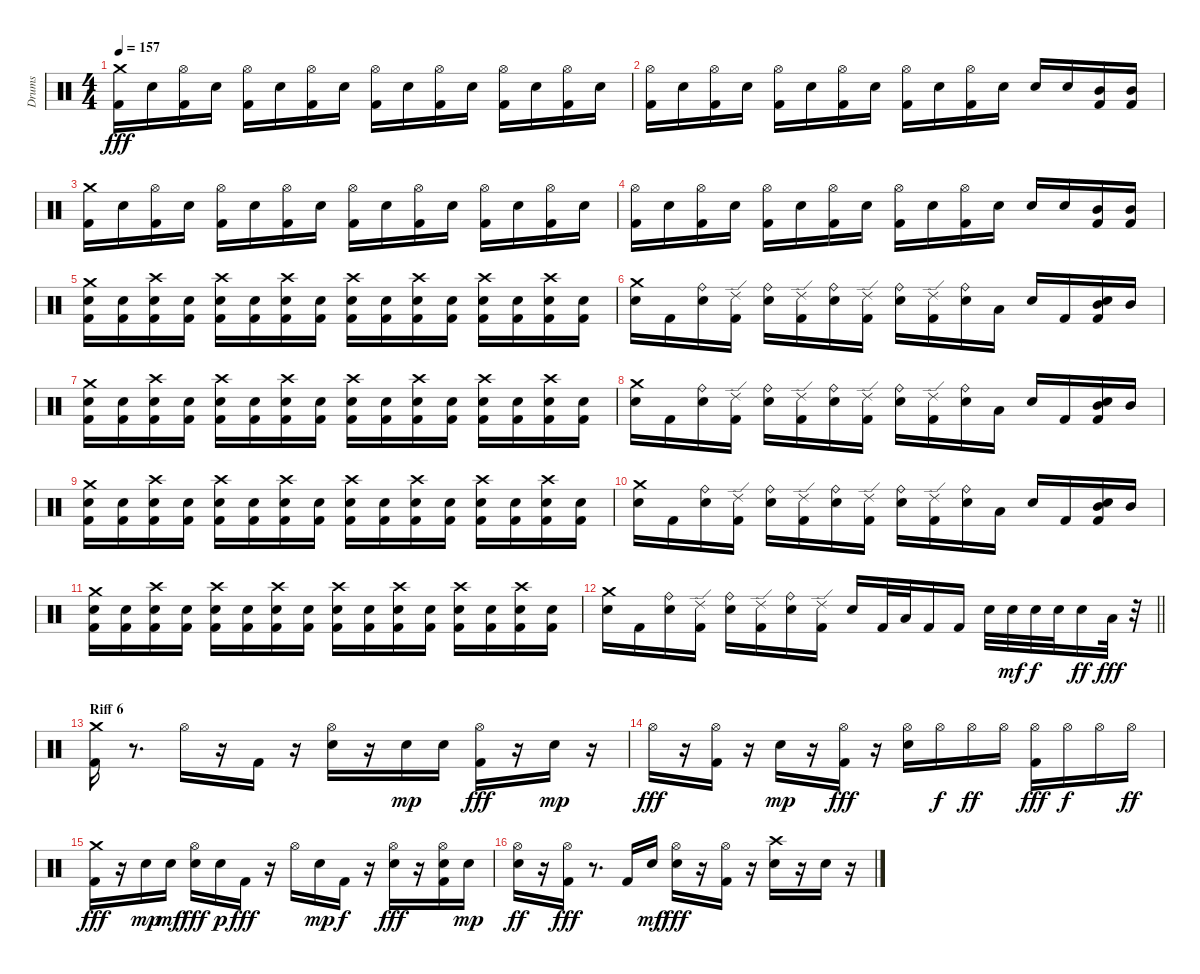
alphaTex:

\track ("Drums" "Drums") {instrument percussion}
\staff {score}
\articulation defaults
\ts (4 4)
\tempo 157
\clef neutral
\ks c
("Kick (hit) 2" "Crash medium (hit)").16{dy fff} "Snare (hit) 2".16 ("Kick (hit) 2" "Hi-Hat (open)").16 "Snare (hit) 2".16 ("Kick (hit) 2" "Hi-Hat (open)").16 "Snare (hit) 2".16 ("Kick (hit) 2" "Hi-Hat (open)").16 "Snare (hit) 2".16 ("Kick (hit) 2" "Hi-Hat (open)").16 "Snare (hit) 2".16 ("Kick (hit) 2" "Hi-Hat (open)").16 "Snare (hit) 2".16 ("Kick (hit) 2" "Hi-Hat (open)").16 "Snare (hit) 2".16 ("Kick (hit) 2" "Hi-Hat (open)").16 "Snare (hit) 2".16 |
("Kick (hit) 2" "Hi-Hat (open)").16 "Snare (hit) 2".16 ("Kick (hit) 2" "Hi-Hat (open)").16 "Snare (hit) 2".16 ("Kick (hit) 2" "Hi-Hat (open)").16 "Snare (hit) 2".16 ("Kick (hit) 2" "Hi-Hat (open)").16 "Snare (hit) 2".16 ("Kick (hit) 2" "Hi-Hat (open)").16 "Snare (hit) 2".16 ("Kick (hit) 2" "Hi-Hat (open)").16 "Snare (hit) 2".16 "Snare (hit) 2".16 "Snare (hit) 2".16 ("Kick (hit) 2" "Mid Tom (hit)").16 ("Kick (hit) 2" "Mid Tom (hit)").16 |
("Kick (hit) 2" "Crash medium (hit)").16 "Snare (hit) 2".16 ("Kick (hit) 2" "Hi-Hat (open)").16 "Snare (hit) 2".16 ("Kick (hit) 2" "Hi-Hat (open)").16 "Snare (hit) 2".16 ("Kick (hit) 2" "Hi-Hat (open)").16 "Snare (hit) 2".16 ("Kick (hit) 2" "Hi-Hat (open)").16 "Snare (hit) 2".16 ("Kick (hit) 2" "Hi-Hat (open)").16 "Snare (hit) 2".16 ("Kick (hit) 2" "Hi-Hat (open)").16 "Snare (hit) 2".16 ("Kick (hit) 2" "Hi-Hat (open)").16 "Snare (hit) 2".16 |
("Kick (hit) 2" "Hi-Hat (open)").16 "Snare (hit) 2".16 ("Kick (hit) 2" "Hi-Hat (open)").16 "Snare (hit) 2".16 ("Kick (hit) 2" "Hi-Hat (open)").16 "Snare (hit) 2".16 ("Kick (hit) 2" "Hi-Hat (open)").16 "Snare (hit) 2".16 ("Kick (hit) 2" "Hi-Hat (open)").16 "Snare (hit) 2".16 ("Kick (hit) 2" "Hi-Hat (open)").16 "Snare (hit) 2".16 "Snare (hit) 2".16 "Snare (hit) 2".16 ("Kick (hit) 2" "Mid Tom (hit)").16 ("Kick (hit) 2" "Mid Tom (hit)").16 |
("Kick (hit) 2" "Snare (hit) 2" "Crash medium (hit)").16 ("Kick (hit) 2" "Snare (hit) 2").16 ("Kick (hit) 2" "Snare (hit) 2" "Crash high (hit)").16 ("Kick (hit) 2" "Snare (hit) 2").16 ("Kick (hit) 2" "Snare (hit) 2" "Crash high (hit)").16 ("Kick (hit) 2" "Snare (hit) 2").16 ("Kick (hit) 2" "Snare (hit) 2" "Crash high (hit)").16 ("Kick (hit) 2" "Snare (hit) 2").16 ("Kick (hit) 2" "Snare (hit) 2" "Crash high (hit)").16 ("Kick (hit) 2" "Snare (hit) 2").16 ("Kick (hit) 2" "Snare (hit) 2" "Crash high (hit)").16 ("Kick (hit) 2" "Snare (hit) 2").16 ("Kick (hit) 2" "Snare (hit) 2" "Crash high (hit)").16 ("Kick (hit) 2" "Snare (hit) 2").16 ("Kick (hit) 2" "Snare (hit) 2" "Crash high (hit)").16 ("Kick (hit) 2" "Snare (hit) 2").16 |
("Snare (hit) 2" "Crash medium (hit)").16 "Kick (hit) 2".16 ("Snare (hit) 2" "Ride (bell)").16 ("Kick (hit) 2" "Ride (edge) 2").16 ("Snare (hit) 2" "Ride (bell)").16 ("Kick (hit) 2" "Ride (edge) 2").16 ("Snare (hit) 2" "Ride (bell)").16 ("Kick (hit) 2" "Ride (edge) 2").16 ("Snare (hit) 2" "Ride (bell)").16 ("Kick (hit) 2" "Ride (edge) 2").16 ("Snare (hit) 2" "Ride (bell)").16 "Low Tom (hit)".16 "Snare (hit) 2".16 "Kick (hit) 2".16 ("Kick (hit) 2" "Snare (hit) 2" "Mid Tom (hit)").16 "Mid Tom (hit)".16 |
("Kick (hit) 2" "Snare (hit) 2" "Crash medium (hit)").16 ("Kick (hit) 2" "Snare (hit) 2").16 ("Kick (hit) 2" "Snare (hit) 2" "Crash high (hit)").16 ("Kick (hit) 2" "Snare (hit) 2").16 ("Kick (hit) 2" "Snare (hit) 2" "Crash high (hit)").16 ("Kick (hit) 2" "Snare (hit) 2").16 ("Kick (hit) 2" "Snare (hit) 2" "Crash high (hit)").16 ("Kick (hit) 2" "Snare (hit) 2").16 ("Kick (hit) 2" "Snare (hit) 2" "Crash high (hit)").16 ("Kick (hit) 2" "Snare (hit) 2").16 ("Kick (hit) 2" "Snare (hit) 2" "Crash high (hit)").16 ("Kick (hit) 2" "Snare (hit) 2").16 ("Kick (hit) 2" "Snare (hit) 2" "Crash high (hit)").16 ("Kick (hit) 2" "Snare (hit) 2").16 ("Kick (hit) 2" "Snare (hit) 2" "Crash high (hit)").16 ("Kick (hit) 2" "Snare (hit) 2").16 |
("Snare (hit) 2" "Crash medium (hit)").16 "Kick (hit) 2".16 ("Snare (hit) 2" "Ride (bell)").16 ("Kick (hit) 2" "Ride (edge) 2").16 ("Snare (hit) 2" "Ride (bell)").16 ("Kick (hit) 2" "Ride (edge) 2").16 ("Snare (hit) 2" "Ride (bell)").16 ("Kick (hit) 2" "Ride (edge) 2").16 ("Snare (hit) 2" "Ride (bell)").16 ("Kick (hit) 2" "Ride (edge) 2").16 ("Snare (hit) 2" "Ride (bell)").16 "Low Tom (hit)".16 "Snare (hit) 2".16 "Kick (hit) 2".16 ("Kick (hit) 2" "Snare (hit) 2" "Mid Tom (hit)").16 "Mid Tom (hit)".16 |
("Kick (hit) 2" "Snare (hit) 2" "Crash medium (hit)").16 ("Kick (hit) 2" "Snare (hit) 2").16 ("Kick (hit) 2" "Snare (hit) 2" "Crash high (hit)").16 ("Kick (hit) 2" "Snare (hit) 2").16 ("Kick (hit) 2" "Snare (hit) 2" "Crash high (hit)").16 ("Kick (hit) 2" "Snare (hit) 2").16 ("Kick (hit) 2" "Snare (hit) 2" "Crash high (hit)").16 ("Kick (hit) 2" "Snare (hit) 2").16 ("Kick (hit) 2" "Snare (hit) 2" "Crash high (hit)").16 ("Kick (hit) 2" "Snare (hit) 2").16 ("Kick (hit) 2" "Snare (hit) 2" "Crash high (hit)").16 ("Kick (hit) 2" "Snare (hit) 2").16 ("Kick (hit) 2" "Snare (hit) 2" "Crash high (hit)").16 ("Kick (hit) 2" "Snare (hit) 2").16 ("Kick (hit) 2" "Snare (hit) 2" "Crash high (hit)").16 ("Kick (hit) 2" "Snare (hit) 2").16 |
("Snare (hit) 2" "Crash medium (hit)").16 "Kick (hit) 2".16 ("Snare (hit) 2" "Ride (bell)").16 ("Kick (hit) 2" "Ride (edge) 2").16 ("Snare (hit) 2" "Ride (bell)").16 ("Kick (hit) 2" "Ride (edge) 2").16 ("Snare (hit) 2" "Ride (bell)").16 ("Kick (hit) 2" "Ride (edge) 2").16 ("Snare (hit) 2" "Ride (bell)").16 ("Kick (hit) 2" "Ride (edge) 2").16 ("Snare (hit) 2" "Ride (bell)").16 "Low Tom (hit)".16 "Snare (hit) 2".16 "Kick (hit) 2".16 ("Kick (hit) 2" "Snare (hit) 2" "Mid Tom (hit)").16 "Mid Tom (hit)".16 |
("Kick (hit) 2" "Snare (hit) 2" "Crash medium (hit)").16 ("Kick (hit) 2" "Snare (hit) 2").16 ("Kick (hit) 2" "Snare (hit) 2" "Crash high (hit)").16 ("Kick (hit) 2" "Snare (hit) 2").16 ("Kick (hit) 2" "Snare (hit) 2" "Crash high (hit)").16 ("Kick (hit) 2" "Snare (hit) 2").16 ("Kick (hit) 2" "Snare (hit) 2" "Crash high (hit)").16 ("Kick (hit) 2" "Snare (hit) 2").16 ("Kick (hit) 2" "Snare (hit) 2" "Crash high (hit)").16 ("Kick (hit) 2" "Snare (hit) 2").16 ("Kick (hit) 2" "Snare (hit) 2" "Crash high (hit)").16 ("Kick (hit) 2" "Snare (hit) 2").16 ("Kick (hit) 2" "Snare (hit) 2" "Crash high (hit)").16 ("Kick (hit) 2" "Snare (hit) 2").16 ("Kick (hit) 2" "Snare (hit) 2" "Crash high (hit)").16 ("Kick (hit) 2" "Snare (hit) 2").16 |
\barLineRight lightlight
("Snare (hit) 2" "Crash medium (hit)").16 "Kick (hit) 2".16 ("Snare (hit) 2" "Ride (bell)").16 ("Kick (hit) 2" "Ride (edge) 2").16 ("Snare (hit) 2" "Ride (bell)").16 ("Kick (hit) 2" "Ride (edge) 2").16 ("Snare (hit) 2" "Ride (bell)").16 ("Kick (hit) 2" "Ride (edge) 2").16 "Snare (hit) 2".16 "Kick (hit) 2".32 "Low Tom (hit)".32 "Kick (hit) 2".16 "Kick (hit) 2".16 "Snare (hit) 2".32 "Snare (hit) 2".32{dy mf} "Snare (hit) 2".32{dy f} "Snare (hit) 2".32 "Snare (hit) 2".16{dy ff} "Low Tom (hit)".32{dy fff} r.32 |
\section ("" "Riff 6")
("Kick (hit) 2" "Crash medium (hit)").16 r.8{d} "Hi-Hat (open)".16 r.16 "Kick (hit) 2".16 r.16 ("Snare (hit) 2" "Hi-Hat (open)").16 r.16 "Snare (hit) 2".16{dy mp} "Snare (hit) 2".16 ("Kick (hit) 2" "Hi-Hat (open)").16{dy fff} r.16 "Snare (hit) 2".16{dy mp} r.16 |
"Hi-Hat (open)".16{dy fff} r.16 ("Kick (hit) 2" "Hi-Hat (open)").16 r.16 "Snare (hit) 2".16{dy mp} r.16 ("Kick (hit) 2" "Hi-Hat (open)").16{dy fff} r.16 ("Snare (hit) 2" "Hi-Hat (open)").16 "Hi-Hat (open)".16{dy f} "Hi-Hat (open)".16{dy ff} "Hi-Hat (open)".16 ("Kick (hit) 2" "Hi-Hat (open)").16{dy fff} "Hi-Hat (open)".16{dy f} "Hi-Hat (open)".16 "Hi-Hat (open)".16{dy ff} |
("Kick (hit) 2" "Crash medium (hit)").16{dy fff} r.16 "Snare (hit) 2".16{dy mp} "Snare (hit) 2".16{dy mf} ("Snare (hit) 2" "Hi-Hat (open)").16{dy fff} "Snare (hit) 2".16{dy p} "Kick (hit) 2".16{dy fff} r.16 "Hi-Hat (open)".16 "Snare (hit) 2".16{dy mp} "Kick (hit) 2".16{dy f} r.16 ("Snare (hit) 2" "Hi-Hat (open)").16{dy fff} r.16 ("Kick (hit) 2" "Snare (hit) 2" "Hi-Hat (open)").16 "Snare (hit) 2".16{dy mp} |
("Snare (hit) 2" "Hi-Hat (open)").16{dy ff} r.16 ("Kick (hit) 2" "Hi-Hat (open)").16{dy fff} r.8{d} "Kick (hit) 2".16 "Snare (hit) 2".16{dy mf} ("Snare (hit) 2" "Hi-Hat (open)").16{dy fff} r.16 ("Kick (hit) 2" "Hi-Hat (open)").16 r.16 ("Snare (hit) 2" "Crash high (hit)").16 r.16 "Snare (hit) 2".16 r.16
